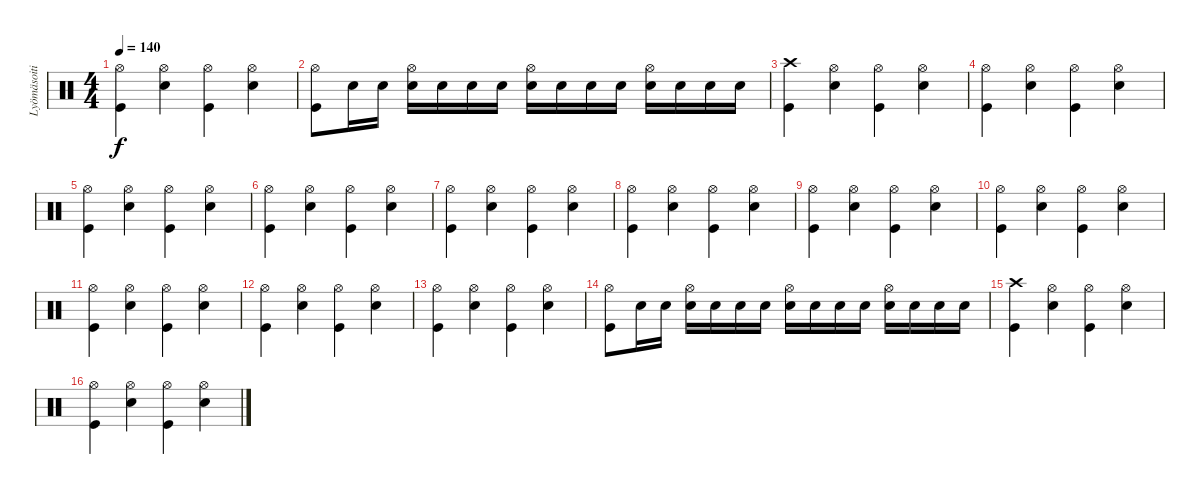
\track ("Lyömäsoitin" "Lyömäsoiti") {instrument percussion}
\staff {score}
\articulation defaults
\ts (4 4)
\tempo 140
\clef neutral
\ks c
("Kick (hit)" "Hi-Hat (open)").4{dy f} ("Electric Snare (hit)" "Hi-Hat (open)").4 ("Kick (hit)" "Hi-Hat (open)").4 ("Electric Snare (hit)" "Hi-Hat (open)").4 |
("Kick (hit)" "Hi-Hat (open)").8 "Electric Snare (hit)".16 "Electric Snare (hit)".16 ("Electric Snare (hit)" "Hi-Hat (open)").16 "Electric Snare (hit)".16 "Electric Snare (hit)".16 "Electric Snare (hit)".16 ("Electric Snare (hit)" "Hi-Hat (open)").16 "Electric Snare (hit)".16 "Electric Snare (hit)".16 "Electric Snare (hit)".16 ("Electric Snare (hit)" "Hi-Hat (open)").16 "Electric Snare (hit)".16 "Electric Snare (hit)".16 "Electric Snare (hit)".16 |
("Kick (hit)" "Crash high (hit)").4 ("Electric Snare (hit)" "Hi-Hat (open)").4 ("Kick (hit)" "Hi-Hat (open)").4 ("Electric Snare (hit)" "Hi-Hat (open)").4 |
("Kick (hit)" "Hi-Hat (open)").4 ("Electric Snare (hit)" "Hi-Hat (open)").4 ("Kick (hit)" "Hi-Hat (open)").4 ("Electric Snare (hit)" "Hi-Hat (open)").4 |
("Kick (hit)" "Hi-Hat (open)").4 ("Electric Snare (hit)" "Hi-Hat (open)").4 ("Kick (hit)" "Hi-Hat (open)").4 ("Electric Snare (hit)" "Hi-Hat (open)").4 |
("Kick (hit)" "Hi-Hat (open)").4 ("Electric Snare (hit)" "Hi-Hat (open)").4 ("Kick (hit)" "Hi-Hat (open)").4 ("Electric Snare (hit)" "Hi-Hat (open)").4 |
("Kick (hit)" "Hi-Hat (open)").4 ("Electric Snare (hit)" "Hi-Hat (open)").4 ("Kick (hit)" "Hi-Hat (open)").4 ("Electric Snare (hit)" "Hi-Hat (open)").4 |
("Kick (hit)" "Hi-Hat (open)").4 ("Electric Snare (hit)" "Hi-Hat (open)").4 ("Kick (hit)" "Hi-Hat (open)").4 ("Electric Snare (hit)" "Hi-Hat (open)").4 |
("Kick (hit)" "Hi-Hat (open)").4 ("Electric Snare (hit)" "Hi-Hat (open)").4 ("Kick (hit)" "Hi-Hat (open)").4 ("Electric Snare (hit)" "Hi-Hat (open)").4 |
("Kick (hit)" "Hi-Hat (open)").4 ("Electric Snare (hit)" "Hi-Hat (open)").4 ("Kick (hit)" "Hi-Hat (open)").4 ("Electric Snare (hit)" "Hi-Hat (open)").4 |
("Kick (hit)" "Hi-Hat (open)").4 ("Electric Snare (hit)" "Hi-Hat (open)").4 ("Kick (hit)" "Hi-Hat (open)").4 ("Electric Snare (hit)" "Hi-Hat (open)").4 |
("Kick (hit)" "Hi-Hat (open)").4 ("Electric Snare (hit)" "Hi-Hat (open)").4 ("Kick (hit)" "Hi-Hat (open)").4 ("Electric Snare (hit)" "Hi-Hat (open)").4 |
("Kick (hit)" "Hi-Hat (open)").4 ("Electric Snare (hit)" "Hi-Hat (open)").4 ("Kick (hit)" "Hi-Hat (open)").4 ("Electric Snare (hit)" "Hi-Hat (open)").4 |
("Kick (hit)" "Hi-Hat (open)").8 "Electric Snare (hit)".16 "Electric Snare (hit)".16 ("Electric Snare (hit)" "Hi-Hat (open)").16 "Electric Snare (hit)".16 "Electric Snare (hit)".16 "Electric Snare (hit)".16 ("Electric Snare (hit)" "Hi-Hat (open)").16 "Electric Snare (hit)".16 "Electric Snare (hit)".16 "Electric Snare (hit)".16 ("Electric Snare (hit)" "Hi-Hat (open)").16 "Electric Snare (hit)".16 "Electric Snare (hit)".16 "Electric Snare (hit)".16 |
("Kick (hit)" "Crash high (hit)").4 ("Electric Snare (hit)" "Hi-Hat (open)").4 ("Kick (hit)" "Hi-Hat (open)").4 ("Electric Snare (hit)" "Hi-Hat (open)").4 |
("Kick (hit)" "Hi-Hat (open)").4 ("Electric Snare (hit)" "Hi-Hat (open)").4 ("Kick (hit)" "Hi-Hat (open)").4 ("Electric Snare (hit)" "Hi-Hat (open)").4
